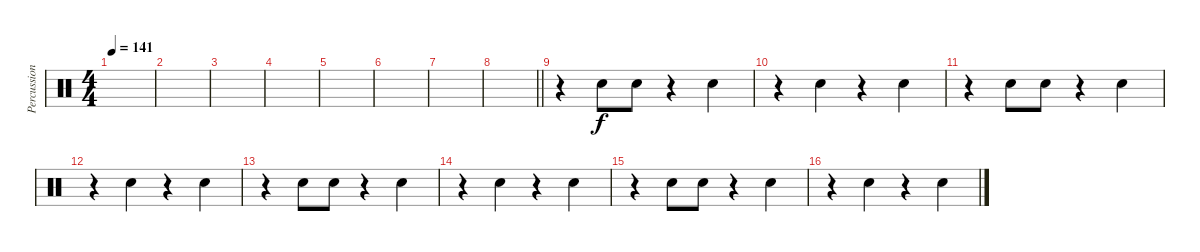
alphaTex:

\track ("Percussion" "Percussion") {instrument percussion}
\staff {score}
\articulation defaults
\ts (4 4)
\tempo 141
\clef neutral
\ks c
|
|
|
|
|
|
|
\barLineRight lightlight
|
r.4 "Hand Clap (hit)".8 "Hand Clap (hit)".8 r.4 "Hand Clap (hit)".4 |
r.4 "Hand Clap (hit)".4 r.4 "Hand Clap (hit)".4 |
r.4 "Hand Clap (hit)".8 "Hand Clap (hit)".8 r.4 "Hand Clap (hit)".4 |
r.4 "Hand Clap (hit)".4 r.4 "Hand Clap (hit)".4 |
r.4 "Hand Clap (hit)".8 "Hand Clap (hit)".8 r.4 "Hand Clap (hit)".4 |
r.4 "Hand Clap (hit)".4 r.4 "Hand Clap (hit)".4 |
r.4 "Hand Clap (hit)".8 "Hand Clap (hit)".8 r.4 "Hand Clap (hit)".4 |
r.4 "Hand Clap (hit)".4 r.4 "Hand Clap (hit)".4
